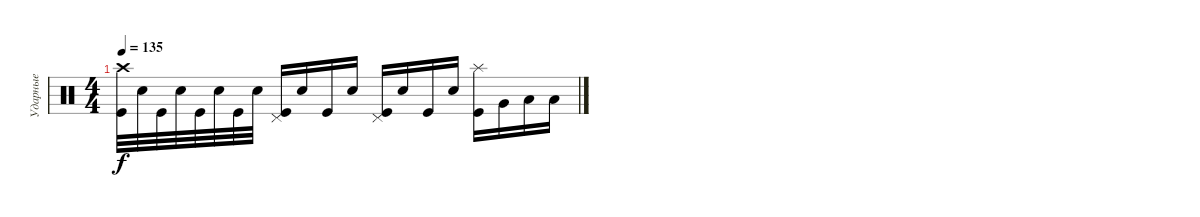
\track ("Ударные" "Ударные") {instrument percussion}
\staff {score}
\articulation defaults
\ts (4 4)
\tempo 135
\clef neutral
\ks c
("Crash high (hit)" "Kick (hit)").32{dy f} "Electric Snare (hit)".32 "Kick (hit)".32 "Electric Snare (hit)".32 "Kick (hit)".32 "Electric Snare (hit)".32 "Kick (hit)".32 "Electric Snare (hit)".32 ("Pedal Hi-Hat (hit)" "Kick (hit)").16 "Electric Snare (hit)".16 "Kick (hit)".16 "Electric Snare (hit)".16 ("Pedal Hi-Hat (hit)" "Kick (hit)").16 "Electric Snare (hit)".16 "Kick (hit)".16 "Electric Snare (hit)".16 ("Splash (hit)" "Kick (hit)").16 "Very Low Tom (hit)".16 "Low Floor Tom (hit)".16 "Low Floor Tom (hit)".16
